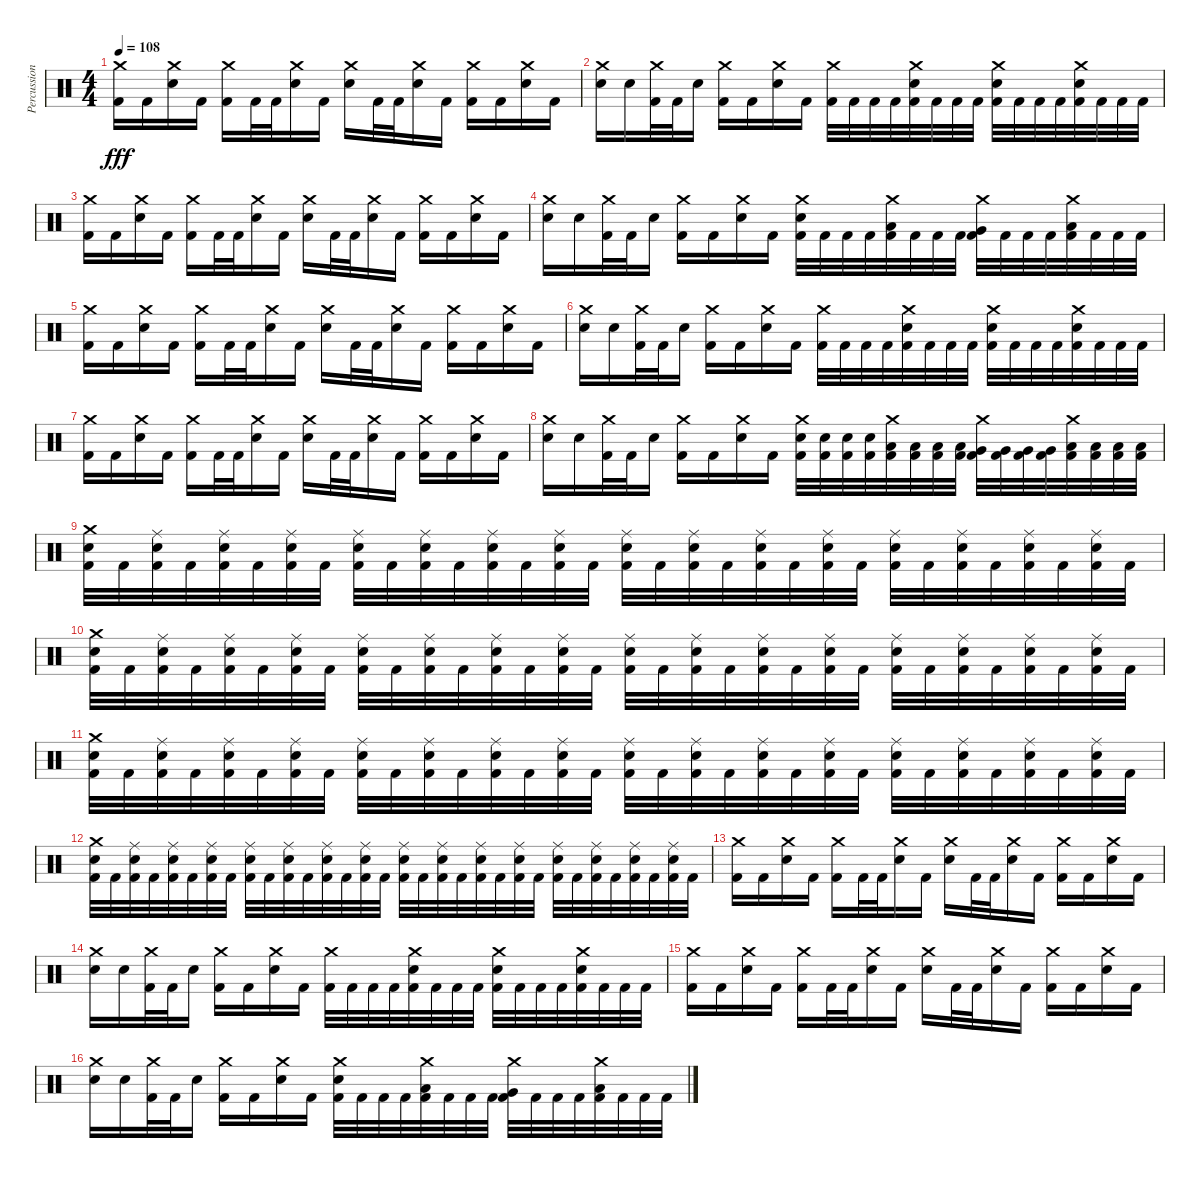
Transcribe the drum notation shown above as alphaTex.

\track ("Percussion" "Percussion") {instrument percussion}
\staff {score}
\articulation defaults
\ts (4 4)
\tempo 108
\clef neutral
\ks c
("Crash medium (hit)" "Kick (hit) 2").16{dy fff} "Kick (hit) 2".16 ("Crash medium (hit)" "Electric Snare (hit)").16 "Kick (hit) 2".16 ("Crash medium (hit)" "Kick (hit) 2").16 "Kick (hit) 2".32 "Kick (hit) 2".32 ("Crash medium (hit)" "Electric Snare (hit)").16 "Kick (hit) 2".16 ("Crash medium (hit)" "Electric Snare (hit)").16 "Kick (hit) 2".32 "Kick (hit) 2".32 ("Crash medium (hit)" "Electric Snare (hit)").16 "Kick (hit) 2".16 ("Crash medium (hit)" "Kick (hit) 2").16 "Kick (hit) 2".16 ("Crash medium (hit)" "Electric Snare (hit)").16 "Kick (hit) 2".16 |
("Crash medium (hit)" "Electric Snare (hit)").16 "Electric Snare (hit)".16 ("Crash medium (hit)" "Kick (hit) 2").32 "Kick (hit) 2".32 "Electric Snare (hit)".16 ("Crash medium (hit)" "Kick (hit) 2").16 "Kick (hit) 2".16 ("Crash medium (hit)" "Electric Snare (hit)").16 "Kick (hit) 2".16 ("Crash medium (hit)" "Kick (hit) 2").32 "Kick (hit) 2".32 "Kick (hit) 2".32 "Kick (hit) 2".32 ("Crash medium (hit)" "Electric Snare (hit)" "Kick (hit) 2").32 "Kick (hit) 2".32 "Kick (hit) 2".32 "Kick (hit) 2".32 ("Crash medium (hit)" "Electric Snare (hit)" "Kick (hit) 2").32 "Kick (hit) 2".32 "Kick (hit) 2".32 "Kick (hit) 2".32 ("Crash medium (hit)" "Electric Snare (hit)" "Kick (hit) 2").32 "Kick (hit) 2".32 "Kick (hit) 2".32 "Kick (hit) 2".32 |
("Crash medium (hit)" "Kick (hit) 2").16 "Kick (hit) 2".16 ("Crash medium (hit)" "Electric Snare (hit)").16 "Kick (hit) 2".16 ("Crash medium (hit)" "Kick (hit) 2").16 "Kick (hit) 2".32 "Kick (hit) 2".32 ("Crash medium (hit)" "Electric Snare (hit)").16 "Kick (hit) 2".16 ("Crash medium (hit)" "Electric Snare (hit)").16 "Kick (hit) 2".32 "Kick (hit) 2".32 ("Crash medium (hit)" "Electric Snare (hit)").16 "Kick (hit) 2".16 ("Crash medium (hit)" "Kick (hit) 2").16 "Kick (hit) 2".16 ("Crash medium (hit)" "Electric Snare (hit)").16 "Kick (hit) 2".16 |
("Crash medium (hit)" "Electric Snare (hit)").16 "Electric Snare (hit)".16 ("Crash medium (hit)" "Kick (hit) 2").32 "Kick (hit) 2".32 "Electric Snare (hit)".16 ("Crash medium (hit)" "Kick (hit) 2").16 "Kick (hit) 2".16 ("Crash medium (hit)" "Electric Snare (hit)").16 "Kick (hit) 2".16 ("Crash medium (hit)" "Electric Snare (hit)" "Kick (hit) 2").32 "Kick (hit) 2".32 "Kick (hit) 2".32 "Kick (hit) 2".32 ("Crash medium (hit)" "Low Tom (hit)" "Kick (hit) 2").32 "Kick (hit) 2".32 "Kick (hit) 2".32 "Kick (hit) 2".32 ("Crash medium (hit)" "Very Low Tom (hit)" "Kick (hit) 2").32 "Kick (hit) 2".32 "Kick (hit) 2".32 "Kick (hit) 2".32 ("Crash medium (hit)" "Low Floor Tom (hit)" "Kick (hit) 2").32 "Kick (hit) 2".32 "Kick (hit) 2".32 "Kick (hit) 2".32 |
("Crash medium (hit)" "Kick (hit) 2").16 "Kick (hit) 2".16 ("Crash medium (hit)" "Electric Snare (hit)").16 "Kick (hit) 2".16 ("Crash medium (hit)" "Kick (hit) 2").16 "Kick (hit) 2".32 "Kick (hit) 2".32 ("Crash medium (hit)" "Electric Snare (hit)").16 "Kick (hit) 2".16 ("Crash medium (hit)" "Electric Snare (hit)").16 "Kick (hit) 2".32 "Kick (hit) 2".32 ("Crash medium (hit)" "Electric Snare (hit)").16 "Kick (hit) 2".16 ("Crash medium (hit)" "Kick (hit) 2").16 "Kick (hit) 2".16 ("Crash medium (hit)" "Electric Snare (hit)").16 "Kick (hit) 2".16 |
("Crash medium (hit)" "Electric Snare (hit)").16 "Electric Snare (hit)".16 ("Crash medium (hit)" "Kick (hit) 2").32 "Kick (hit) 2".32 "Electric Snare (hit)".16 ("Crash medium (hit)" "Kick (hit) 2").16 "Kick (hit) 2".16 ("Crash medium (hit)" "Electric Snare (hit)").16 "Kick (hit) 2".16 ("Crash medium (hit)" "Kick (hit) 2").32 "Kick (hit) 2".32 "Kick (hit) 2".32 "Kick (hit) 2".32 ("Crash medium (hit)" "Electric Snare (hit)" "Kick (hit) 2").32 "Kick (hit) 2".32 "Kick (hit) 2".32 "Kick (hit) 2".32 ("Crash medium (hit)" "Electric Snare (hit)" "Kick (hit) 2").32 "Kick (hit) 2".32 "Kick (hit) 2".32 "Kick (hit) 2".32 ("Crash medium (hit)" "Electric Snare (hit)" "Kick (hit) 2").32 "Kick (hit) 2".32 "Kick (hit) 2".32 "Kick (hit) 2".32 |
("Crash medium (hit)" "Kick (hit) 2").16 "Kick (hit) 2".16 ("Crash medium (hit)" "Electric Snare (hit)").16 "Kick (hit) 2".16 ("Crash medium (hit)" "Kick (hit) 2").16 "Kick (hit) 2".32 "Kick (hit) 2".32 ("Crash medium (hit)" "Electric Snare (hit)").16 "Kick (hit) 2".16 ("Crash medium (hit)" "Electric Snare (hit)").16 "Kick (hit) 2".32 "Kick (hit) 2".32 ("Crash medium (hit)" "Electric Snare (hit)").16 "Kick (hit) 2".16 ("Crash medium (hit)" "Kick (hit) 2").16 "Kick (hit) 2".16 ("Crash medium (hit)" "Electric Snare (hit)").16 "Kick (hit) 2".16 |
("Crash medium (hit)" "Electric Snare (hit)").16 "Electric Snare (hit)".16 ("Crash medium (hit)" "Kick (hit) 2").32 "Kick (hit) 2".32 "Electric Snare (hit)".16 ("Crash medium (hit)" "Kick (hit) 2").16 "Kick (hit) 2".16 ("Crash medium (hit)" "Electric Snare (hit)").16 "Kick (hit) 2".16 ("Crash medium (hit)" "Electric Snare (hit)" "Kick (hit) 2").32 ("Electric Snare (hit)" "Kick (hit) 2").32 ("Electric Snare (hit)" "Kick (hit) 2").32 ("Electric Snare (hit)" "Kick (hit) 2").32 ("Crash medium (hit)" "Low Tom (hit)" "Kick (hit) 2").32 ("Low Tom (hit)" "Kick (hit) 2").32 ("Low Tom (hit)" "Kick (hit) 2").32 ("Low Tom (hit)" "Kick (hit) 2").32 ("Crash medium (hit)" "Very Low Tom (hit)" "Kick (hit) 2").32 ("Very Low Tom (hit)" "Kick (hit) 2").32 ("Very Low Tom (hit)" "Kick (hit) 2").32 ("Very Low Tom (hit)" "Kick (hit) 2").32 ("Crash medium (hit)" "Low Floor Tom (hit)" "Kick (hit) 2").32 ("Low Floor Tom (hit)" "Kick (hit) 2").32 ("Low Floor Tom (hit)" "Kick (hit) 2").32 ("Low Floor Tom (hit)" "Kick (hit) 2").32 |
("Crash medium (hit)" "Electric Snare (hit)" "Kick (hit) 2").32 "Kick (hit) 2".32 ("Ride (middle)" "Electric Snare (hit)" "Kick (hit) 2").32 "Kick (hit) 2".32 ("Ride (middle)" "Electric Snare (hit)" "Kick (hit) 2").32 "Kick (hit) 2".32 ("Ride (middle)" "Electric Snare (hit)" "Kick (hit) 2").32 "Kick (hit) 2".32 ("Ride (middle)" "Electric Snare (hit)" "Kick (hit) 2").32 "Kick (hit) 2".32 ("Ride (middle)" "Electric Snare (hit)" "Kick (hit) 2").32 "Kick (hit) 2".32 ("Ride (middle)" "Electric Snare (hit)" "Kick (hit) 2").32 "Kick (hit) 2".32 ("Ride (middle)" "Electric Snare (hit)" "Kick (hit) 2").32 "Kick (hit) 2".32 ("Ride (middle)" "Electric Snare (hit)" "Kick (hit) 2").32 "Kick (hit) 2".32 ("Ride (middle)" "Electric Snare (hit)" "Kick (hit) 2").32 "Kick (hit) 2".32 ("Ride (middle)" "Electric Snare (hit)" "Kick (hit) 2").32 "Kick (hit) 2".32 ("Ride (middle)" "Electric Snare (hit)" "Kick (hit) 2").32 "Kick (hit) 2".32 ("Ride (middle)" "Electric Snare (hit)" "Kick (hit) 2").32 "Kick (hit) 2".32 ("Ride (middle)" "Electric Snare (hit)" "Kick (hit) 2").32 "Kick (hit) 2".32 ("Ride (middle)" "Electric Snare (hit)" "Kick (hit) 2").32 "Kick (hit) 2".32 ("Ride (middle)" "Electric Snare (hit)" "Kick (hit) 2").32 "Kick (hit) 2".32 |
("Crash medium (hit)" "Electric Snare (hit)" "Kick (hit) 2").32 "Kick (hit) 2".32 ("Ride (middle)" "Electric Snare (hit)" "Kick (hit) 2").32 "Kick (hit) 2".32 ("Ride (middle)" "Electric Snare (hit)" "Kick (hit) 2").32 "Kick (hit) 2".32 ("Ride (middle)" "Electric Snare (hit)" "Kick (hit) 2").32 "Kick (hit) 2".32 ("Ride (middle)" "Electric Snare (hit)" "Kick (hit) 2").32 "Kick (hit) 2".32 ("Ride (middle)" "Electric Snare (hit)" "Kick (hit) 2").32 "Kick (hit) 2".32 ("Ride (middle)" "Electric Snare (hit)" "Kick (hit) 2").32 "Kick (hit) 2".32 ("Ride (middle)" "Electric Snare (hit)" "Kick (hit) 2").32 "Kick (hit) 2".32 ("Ride (middle)" "Electric Snare (hit)" "Kick (hit) 2").32 "Kick (hit) 2".32 ("Ride (middle)" "Electric Snare (hit)" "Kick (hit) 2").32 "Kick (hit) 2".32 ("Ride (middle)" "Electric Snare (hit)" "Kick (hit) 2").32 "Kick (hit) 2".32 ("Ride (middle)" "Electric Snare (hit)" "Kick (hit) 2").32 "Kick (hit) 2".32 ("Ride (middle)" "Electric Snare (hit)" "Kick (hit) 2").32 "Kick (hit) 2".32 ("Ride (middle)" "Electric Snare (hit)" "Kick (hit) 2").32 "Kick (hit) 2".32 ("Ride (middle)" "Electric Snare (hit)" "Kick (hit) 2").32 "Kick (hit) 2".32 ("Ride (middle)" "Electric Snare (hit)" "Kick (hit) 2").32 "Kick (hit) 2".32 |
("Crash medium (hit)" "Electric Snare (hit)" "Kick (hit) 2").32 "Kick (hit) 2".32 ("Ride (middle)" "Electric Snare (hit)" "Kick (hit) 2").32 "Kick (hit) 2".32 ("Ride (middle)" "Electric Snare (hit)" "Kick (hit) 2").32 "Kick (hit) 2".32 ("Ride (middle)" "Electric Snare (hit)" "Kick (hit) 2").32 "Kick (hit) 2".32 ("Ride (middle)" "Electric Snare (hit)" "Kick (hit) 2").32 "Kick (hit) 2".32 ("Ride (middle)" "Electric Snare (hit)" "Kick (hit) 2").32 "Kick (hit) 2".32 ("Ride (middle)" "Electric Snare (hit)" "Kick (hit) 2").32 "Kick (hit) 2".32 ("Ride (middle)" "Electric Snare (hit)" "Kick (hit) 2").32 "Kick (hit) 2".32 ("Ride (middle)" "Electric Snare (hit)" "Kick (hit) 2").32 "Kick (hit) 2".32 ("Ride (middle)" "Electric Snare (hit)" "Kick (hit) 2").32 "Kick (hit) 2".32 ("Ride (middle)" "Electric Snare (hit)" "Kick (hit) 2").32 "Kick (hit) 2".32 ("Ride (middle)" "Electric Snare (hit)" "Kick (hit) 2").32 "Kick (hit) 2".32 ("Ride (middle)" "Electric Snare (hit)" "Kick (hit) 2").32 "Kick (hit) 2".32 ("Ride (middle)" "Electric Snare (hit)" "Kick (hit) 2").32 "Kick (hit) 2".32 ("Ride (middle)" "Electric Snare (hit)" "Kick (hit) 2").32 "Kick (hit) 2".32 ("Ride (middle)" "Electric Snare (hit)" "Kick (hit) 2").32 "Kick (hit) 2".32 |
("Crash medium (hit)" "Electric Snare (hit)" "Kick (hit) 2").32 "Kick (hit) 2".32 ("Ride (middle)" "Electric Snare (hit)" "Kick (hit) 2").32 "Kick (hit) 2".32 ("Ride (middle)" "Electric Snare (hit)" "Kick (hit) 2").32 "Kick (hit) 2".32 ("Ride (middle)" "Electric Snare (hit)" "Kick (hit) 2").32 "Kick (hit) 2".32 ("Ride (middle)" "Electric Snare (hit)" "Kick (hit) 2").32 "Kick (hit) 2".32 ("Ride (middle)" "Electric Snare (hit)" "Kick (hit) 2").32 "Kick (hit) 2".32 ("Ride (middle)" "Electric Snare (hit)" "Kick (hit) 2").32 "Kick (hit) 2".32 ("Ride (middle)" "Electric Snare (hit)" "Kick (hit) 2").32 "Kick (hit) 2".32 ("Ride (middle)" "Electric Snare (hit)" "Kick (hit) 2").32 "Kick (hit) 2".32 ("Ride (middle)" "Electric Snare (hit)" "Kick (hit) 2").32 "Kick (hit) 2".32 ("Ride (middle)" "Electric Snare (hit)" "Kick (hit) 2").32 "Kick (hit) 2".32 ("Ride (middle)" "Electric Snare (hit)" "Kick (hit) 2").32 "Kick (hit) 2".32 ("Ride (middle)" "Electric Snare (hit)" "Kick (hit) 2").32 "Kick (hit) 2".32 ("Ride (middle)" "Electric Snare (hit)" "Kick (hit) 2").32 "Kick (hit) 2".32 ("Ride (middle)" "Electric Snare (hit)" "Kick (hit) 2").32 "Kick (hit) 2".32 ("Ride (middle)" "Electric Snare (hit)" "Kick (hit) 2").32 "Kick (hit) 2".32 |
("Crash medium (hit)" "Kick (hit) 2").16 "Kick (hit) 2".16 ("Crash medium (hit)" "Electric Snare (hit)").16 "Kick (hit) 2".16 ("Crash medium (hit)" "Kick (hit) 2").16 "Kick (hit) 2".32 "Kick (hit) 2".32 ("Crash medium (hit)" "Electric Snare (hit)").16 "Kick (hit) 2".16 ("Crash medium (hit)" "Electric Snare (hit)").16 "Kick (hit) 2".32 "Kick (hit) 2".32 ("Crash medium (hit)" "Electric Snare (hit)").16 "Kick (hit) 2".16 ("Crash medium (hit)" "Kick (hit) 2").16 "Kick (hit) 2".16 ("Crash medium (hit)" "Electric Snare (hit)").16 "Kick (hit) 2".16 |
("Crash medium (hit)" "Electric Snare (hit)").16 "Electric Snare (hit)".16 ("Crash medium (hit)" "Kick (hit) 2").32 "Kick (hit) 2".32 "Electric Snare (hit)".16 ("Crash medium (hit)" "Kick (hit) 2").16 "Kick (hit) 2".16 ("Crash medium (hit)" "Electric Snare (hit)").16 "Kick (hit) 2".16 ("Crash medium (hit)" "Kick (hit) 2").32 "Kick (hit) 2".32 "Kick (hit) 2".32 "Kick (hit) 2".32 ("Crash medium (hit)" "Electric Snare (hit)" "Kick (hit) 2").32 "Kick (hit) 2".32 "Kick (hit) 2".32 "Kick (hit) 2".32 ("Crash medium (hit)" "Electric Snare (hit)" "Kick (hit) 2").32 "Kick (hit) 2".32 "Kick (hit) 2".32 "Kick (hit) 2".32 ("Crash medium (hit)" "Electric Snare (hit)" "Kick (hit) 2").32 "Kick (hit) 2".32 "Kick (hit) 2".32 "Kick (hit) 2".32 |
("Crash medium (hit)" "Kick (hit) 2").16 "Kick (hit) 2".16 ("Crash medium (hit)" "Electric Snare (hit)").16 "Kick (hit) 2".16 ("Crash medium (hit)" "Kick (hit) 2").16 "Kick (hit) 2".32 "Kick (hit) 2".32 ("Crash medium (hit)" "Electric Snare (hit)").16 "Kick (hit) 2".16 ("Crash medium (hit)" "Electric Snare (hit)").16 "Kick (hit) 2".32 "Kick (hit) 2".32 ("Crash medium (hit)" "Electric Snare (hit)").16 "Kick (hit) 2".16 ("Crash medium (hit)" "Kick (hit) 2").16 "Kick (hit) 2".16 ("Crash medium (hit)" "Electric Snare (hit)").16 "Kick (hit) 2".16 |
("Crash medium (hit)" "Electric Snare (hit)").16 "Electric Snare (hit)".16 ("Crash medium (hit)" "Kick (hit) 2").32 "Kick (hit) 2".32 "Electric Snare (hit)".16 ("Crash medium (hit)" "Kick (hit) 2").16 "Kick (hit) 2".16 ("Crash medium (hit)" "Electric Snare (hit)").16 "Kick (hit) 2".16 ("Crash medium (hit)" "Electric Snare (hit)" "Kick (hit) 2").32 "Kick (hit) 2".32 "Kick (hit) 2".32 "Kick (hit) 2".32 ("Crash medium (hit)" "Low Tom (hit)" "Kick (hit) 2").32 "Kick (hit) 2".32 "Kick (hit) 2".32 "Kick (hit) 2".32 ("Crash medium (hit)" "Very Low Tom (hit)" "Kick (hit) 2").32 "Kick (hit) 2".32 "Kick (hit) 2".32 "Kick (hit) 2".32 ("Crash medium (hit)" "Low Floor Tom (hit)" "Kick (hit) 2").32 "Kick (hit) 2".32 "Kick (hit) 2".32 "Kick (hit) 2".32
